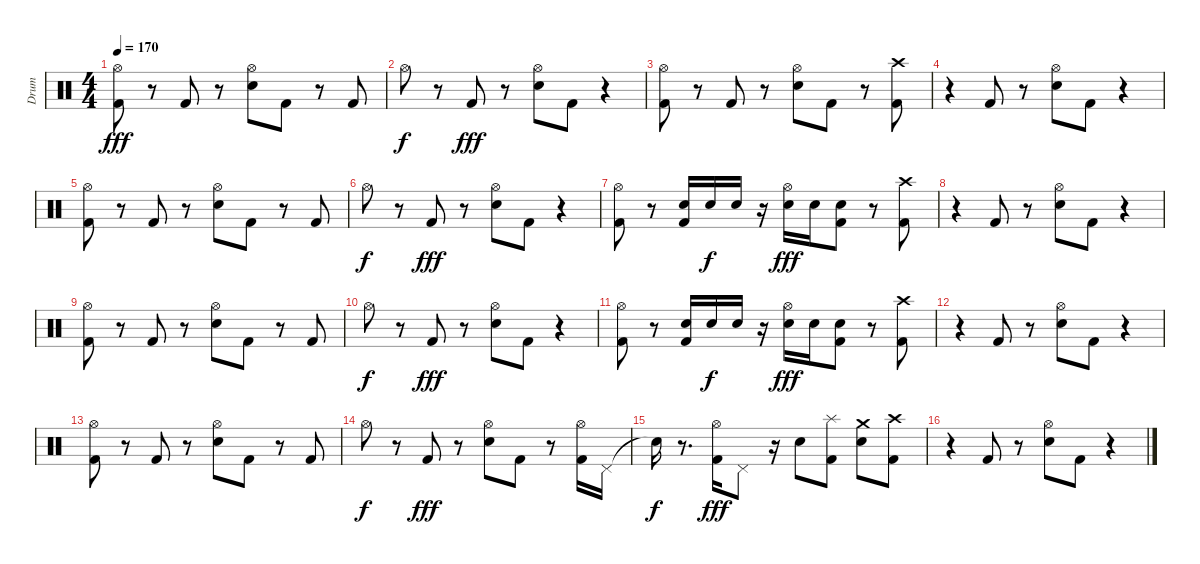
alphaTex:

\track ("Drum" "Drum") {instrument percussion}
\staff {score}
\articulation defaults
\ts (4 4)
\tempo 170
\clef neutral
\ks c
("Kick (hit) 2" "Hi-Hat (open)").8{dy fff} r.8 "Kick (hit) 2".8 r.8 ("Snare (hit) 2" "Hi-Hat (open)").8 "Kick (hit) 2".8 r.8 "Kick (hit) 2".8 |
"Hi-Hat (open)".8{dy f} r.8 "Kick (hit) 2".8{dy fff} r.8 ("Snare (hit) 2" "Hi-Hat (open)").8 "Kick (hit) 2".8 r.4 |
("Kick (hit) 2" "Hi-Hat (open)").8 r.8 "Kick (hit) 2".8 r.8 ("Snare (hit) 2" "Hi-Hat (open)").8 "Kick (hit) 2".8 r.8 ("Kick (hit) 2" "Crash high (hit)").8 |
r.4 "Kick (hit) 2".8 r.8 ("Snare (hit) 2" "Hi-Hat (open)").8 "Kick (hit) 2".8 r.4 |
("Kick (hit) 2" "Hi-Hat (open)").8 r.8 "Kick (hit) 2".8 r.8 ("Snare (hit) 2" "Hi-Hat (open)").8 "Kick (hit) 2".8 r.8 "Kick (hit) 2".8 |
"Hi-Hat (open)".8{dy f} r.8 "Kick (hit) 2".8{dy fff} r.8 ("Snare (hit) 2" "Hi-Hat (open)").8 "Kick (hit) 2".8 r.4 |
("Kick (hit) 2" "Hi-Hat (open)").8 r.8 ("Snare (hit) 2" "Kick (hit) 2").16 "Snare (hit) 2".16{dy f} "Snare (hit) 2".16 r.16 ("Snare (hit) 2" "Hi-Hat (open)").16{dy fff} "Snare (hit) 2".16 ("Snare (hit) 2" "Kick (hit) 2").8 r.8 ("Kick (hit) 2" "Crash high (hit)").8 |
r.4 "Kick (hit) 2".8 r.8 ("Snare (hit) 2" "Hi-Hat (open)").8 "Kick (hit) 2".8 r.4 |
("Kick (hit) 2" "Hi-Hat (open)").8 r.8 "Kick (hit) 2".8 r.8 ("Snare (hit) 2" "Hi-Hat (open)").8 "Kick (hit) 2".8 r.8 "Kick (hit) 2".8 |
"Hi-Hat (open)".8{dy f} r.8 "Kick (hit) 2".8{dy fff} r.8 ("Snare (hit) 2" "Hi-Hat (open)").8 "Kick (hit) 2".8 r.4 |
("Kick (hit) 2" "Hi-Hat (open)").8 r.8 ("Snare (hit) 2" "Kick (hit) 2").16 "Snare (hit) 2".16{dy f} "Snare (hit) 2".16 r.16 ("Snare (hit) 2" "Hi-Hat (open)").16{dy fff} "Snare (hit) 2".16 ("Snare (hit) 2" "Kick (hit) 2").8 r.8 ("Kick (hit) 2" "Crash high (hit)").8 |
r.4 "Kick (hit) 2".8 r.8 ("Snare (hit) 2" "Hi-Hat (open)").8 "Kick (hit) 2".8 r.4 |
("Kick (hit) 2" "Hi-Hat (open)").8 r.8 "Kick (hit) 2".8 r.8 ("Snare (hit) 2" "Hi-Hat (open)").8 "Kick (hit) 2".8 r.8 "Kick (hit) 2".8 |
"Hi-Hat (open)".8{dy f} r.8 "Kick (hit) 2".8{dy fff} r.8 ("Snare (hit) 2" "Hi-Hat (open)").8 "Kick (hit) 2".8 r.8 ("Kick (hit) 2" "Hi-Hat (open)").16 "Pedal Hi-Hat (hit)".16 |
"Snare (hit)"{t}.16{dy f} r.8{d} ("Kick (hit) 2" "Hi-Hat (open)").16{dy fff} "Pedal Hi-Hat (hit)".8 r.16 "Snare (hit) 2".8 ("Splash (hit)" "Kick (hit) 2").8 ("Crash medium (hit)" "Snare (hit) 2").8 ("Kick (hit) 2" "Crash high (hit)").8 |
r.4 "Kick (hit) 2".8 r.8 ("Snare (hit) 2" "Hi-Hat (open)").8 "Kick (hit) 2".8 r.4
